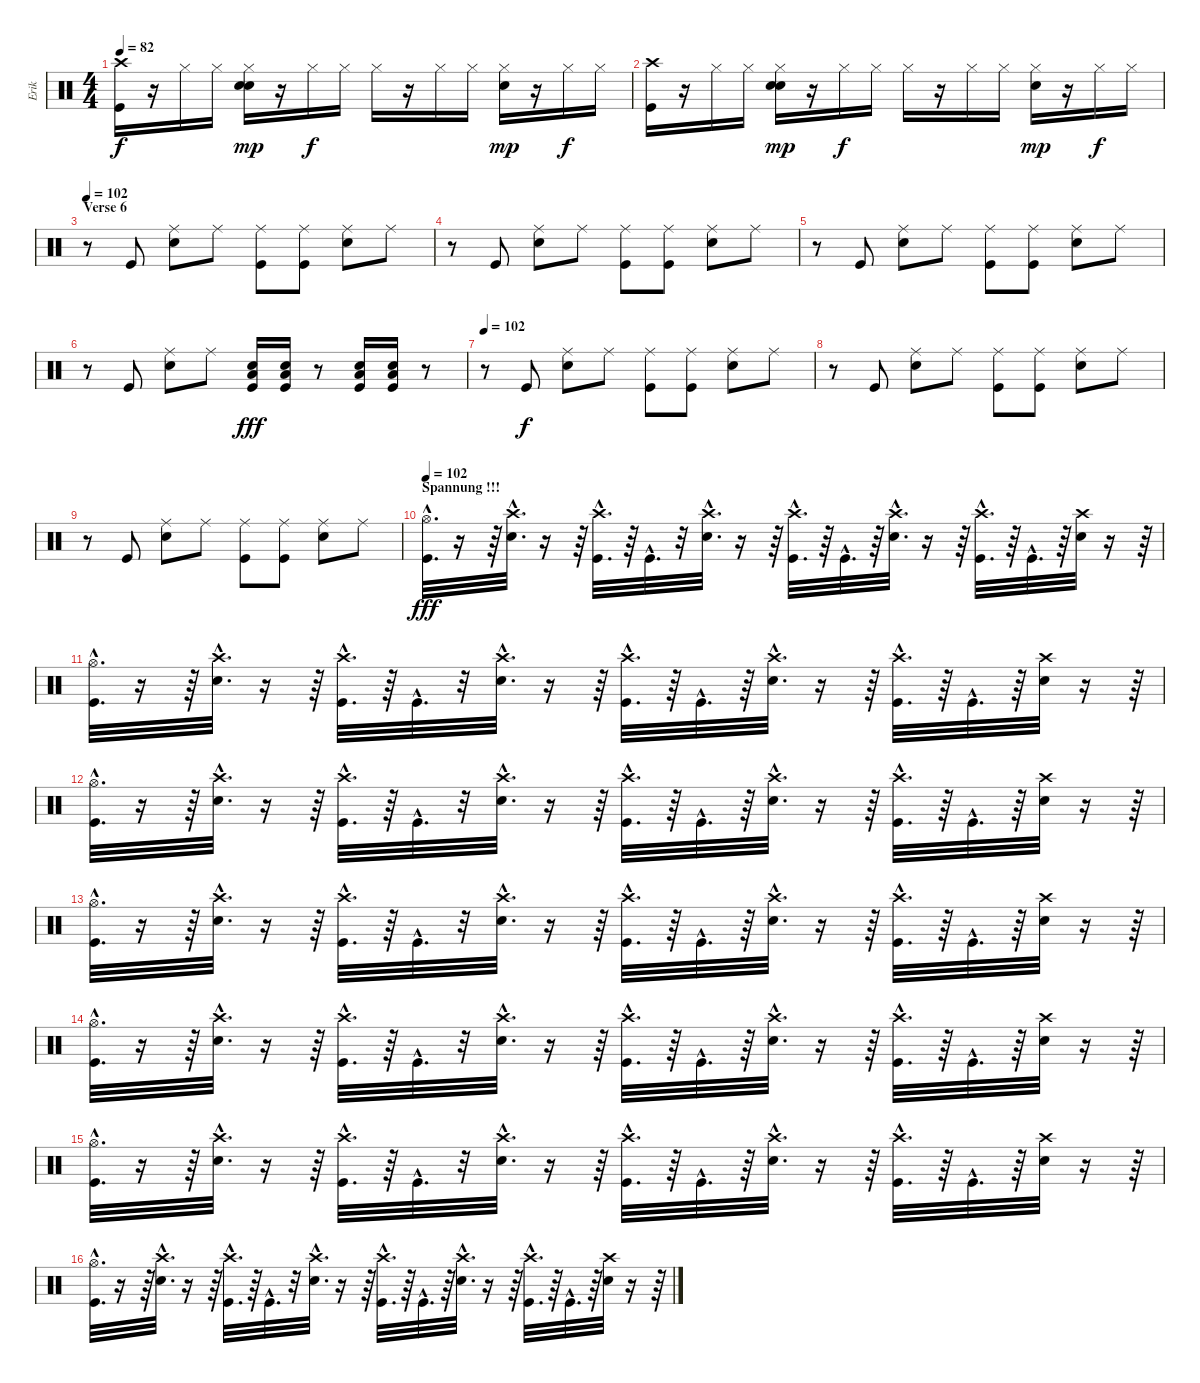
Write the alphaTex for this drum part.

\track ("Erik" "Erik") {instrument percussion}
\staff {score}
\articulation defaults
\ts (4 4)
\tempo 82
\clef neutral
\ks c
("Kick (hit)" "Crash high (hit)").16{dy f} r.16 "Hi-Hat (closed)".16 "Hi-Hat (closed)".16 ("Snare (hit) 2" "Hi-Hat (closed)" "Snare (hit) 2").16{dy mp} r.16 "Hi-Hat (closed)".16{dy f} "Hi-Hat (closed)".16 "Hi-Hat (closed)".16 r.16 "Hi-Hat (closed)".16 "Hi-Hat (closed)".16 ("Hi-Hat (closed)" "Snare (hit) 2").16{dy mp} r.16 "Hi-Hat (closed)".16{dy f} "Hi-Hat (closed)".16 |
("Kick (hit)" "Crash high (hit)").16 r.16 "Hi-Hat (closed)".16 "Hi-Hat (closed)".16 ("Hi-Hat (closed)" "Snare (hit) 2" "Snare (hit) 2").16{dy mp} r.16 "Hi-Hat (closed)".16{dy f} "Hi-Hat (closed)".16 "Hi-Hat (closed)".16 r.16 "Hi-Hat (closed)".16 "Hi-Hat (closed)".16 ("Hi-Hat (closed)" "Snare (hit) 2").16{dy mp} r.16 "Hi-Hat (closed)".16{dy f} "Hi-Hat (closed)".16 |
\section ("" "Verse 6")
\tempo 102
r.8 "Kick (hit)".8 ("Electric Snare (hit)" "Ride (middle)").8 "Ride (middle)".8 ("Kick (hit)" "Ride (middle)").8 ("Kick (hit)" "Ride (middle)").8 ("Ride (middle)" "Electric Snare (hit)").8 "Ride (middle)".8 |
r.8 "Kick (hit)".8 ("Electric Snare (hit)" "Ride (middle)").8 "Ride (middle)".8 ("Kick (hit)" "Ride (middle)").8 ("Kick (hit)" "Ride (middle)").8 ("Ride (middle)" "Electric Snare (hit)").8 "Ride (middle)".8 |
r.8 "Kick (hit)".8 ("Electric Snare (hit)" "Ride (middle)").8 "Ride (middle)".8 ("Kick (hit)" "Ride (middle)").8 ("Kick (hit)" "Ride (middle)").8 ("Ride (middle)" "Electric Snare (hit)").8 "Ride (middle)".8 |
r.8 "Kick (hit)".8 ("Electric Snare (hit)" "Ride (middle)").8 "Ride (middle)".8 ("Electric Snare (hit)" "Kick (hit)" "Low Floor Tom (hit)").16{dy fff} ("Electric Snare (hit)" "Low Floor Tom (hit)" "Kick (hit)").16 r.8 ("Kick (hit)" "Low Floor Tom (hit)" "Electric Snare (hit)").16 ("Kick (hit)" "Electric Snare (hit)" "Low Floor Tom (hit)").16 r.8 |
\tempo 102
r.8 "Kick (hit)".8{dy f} ("Electric Snare (hit)" "Ride (middle)").8 "Ride (middle)".8 ("Kick (hit)" "Ride (middle)").8 ("Kick (hit)" "Ride (middle)").8 ("Ride (middle)" "Electric Snare (hit)").8 "Ride (middle)".8 |
r.8 "Kick (hit)".8 ("Electric Snare (hit)" "Ride (middle)").8 "Ride (middle)".8 ("Kick (hit)" "Ride (middle)").8 ("Kick (hit)" "Ride (middle)").8 ("Ride (middle)" "Electric Snare (hit)").8 "Ride (middle)".8 |
r.8 "Kick (hit)".8 ("Electric Snare (hit)" "Ride (middle)").8 "Ride (middle)".8 ("Kick (hit)" "Ride (middle)").8 ("Kick (hit)" "Ride (middle)").8 ("Ride (middle)" "Electric Snare (hit)").8 "Ride (middle)".8 |
\section ("" "Spannung !!!")
\tempo 102
("Hi-Hat (open)"{hac} "Kick (hit)"{hac}).32{d dy fff} r.16 r.64 ("Crash high (hit)"{hac} "Electric Snare (hit)"{hac}).32{d} r.16 r.64 ("Kick (hit)"{hac} "Crash high (hit)"{hac}).32{d} r.64 "Kick (hit)"{hac}.32{d} r.32 ("Crash high (hit)"{hac} "Electric Snare (hit)"{hac}).32{d} r.16 r.64 ("Crash high (hit)"{hac} "Kick (hit)"{hac}).32{d} r.64 "Kick (hit)"{hac}.32{d} r.64 ("Crash high (hit)"{hac} "Electric Snare (hit)"{hac}).32{d} r.16 r.64 ("Kick (hit)"{hac} "Crash high (hit)"{hac}).32{d} r.64 "Kick (hit)"{hac}.32{d} r.64 ("Electric Snare (hit)" "Crash high (hit)").32 r.16 r.64 |
("Hi-Hat (open)"{hac} "Kick (hit)"{hac}).32{d} r.16 r.64 ("Crash high (hit)"{hac} "Electric Snare (hit)"{hac}).32{d} r.16 r.64 ("Kick (hit)"{hac} "Crash high (hit)"{hac}).32{d} r.64 "Kick (hit)"{hac}.32{d} r.32 ("Crash high (hit)"{hac} "Electric Snare (hit)"{hac}).32{d} r.16 r.64 ("Crash high (hit)"{hac} "Kick (hit)"{hac}).32{d} r.64 "Kick (hit)"{hac}.32{d} r.64 ("Crash high (hit)"{hac} "Electric Snare (hit)"{hac}).32{d} r.16 r.64 ("Kick (hit)"{hac} "Crash high (hit)"{hac}).32{d} r.64 "Kick (hit)"{hac}.32{d} r.64 ("Electric Snare (hit)" "Crash high (hit)").32 r.16 r.64 |
("Hi-Hat (open)"{hac} "Kick (hit)"{hac}).32{d} r.16 r.64 ("Crash high (hit)"{hac} "Electric Snare (hit)"{hac}).32{d} r.16 r.64 ("Kick (hit)"{hac} "Crash high (hit)"{hac}).32{d} r.64 "Kick (hit)"{hac}.32{d} r.32 ("Crash high (hit)"{hac} "Electric Snare (hit)"{hac}).32{d} r.16 r.64 ("Crash high (hit)"{hac} "Kick (hit)"{hac}).32{d} r.64 "Kick (hit)"{hac}.32{d} r.64 ("Crash high (hit)"{hac} "Electric Snare (hit)"{hac}).32{d} r.16 r.64 ("Kick (hit)"{hac} "Crash high (hit)"{hac}).32{d} r.64 "Kick (hit)"{hac}.32{d} r.64 ("Electric Snare (hit)" "Crash high (hit)").32 r.16 r.64 |
("Hi-Hat (open)"{hac} "Kick (hit)"{hac}).32{d} r.16 r.64 ("Crash high (hit)"{hac} "Electric Snare (hit)"{hac}).32{d} r.16 r.64 ("Kick (hit)"{hac} "Crash high (hit)"{hac}).32{d} r.64 "Kick (hit)"{hac}.32{d} r.32 ("Crash high (hit)"{hac} "Electric Snare (hit)"{hac}).32{d} r.16 r.64 ("Crash high (hit)"{hac} "Kick (hit)"{hac}).32{d} r.64 "Kick (hit)"{hac}.32{d} r.64 ("Crash high (hit)"{hac} "Electric Snare (hit)"{hac}).32{d} r.16 r.64 ("Kick (hit)"{hac} "Crash high (hit)"{hac}).32{d} r.64 "Kick (hit)"{hac}.32{d} r.64 ("Electric Snare (hit)" "Crash high (hit)").32 r.16 r.64 |
("Hi-Hat (open)"{hac} "Kick (hit)"{hac}).32{d} r.16 r.64 ("Crash high (hit)"{hac} "Electric Snare (hit)"{hac}).32{d} r.16 r.64 ("Kick (hit)"{hac} "Crash high (hit)"{hac}).32{d} r.64 "Kick (hit)"{hac}.32{d} r.32 ("Crash high (hit)"{hac} "Electric Snare (hit)"{hac}).32{d} r.16 r.64 ("Crash high (hit)"{hac} "Kick (hit)"{hac}).32{d} r.64 "Kick (hit)"{hac}.32{d} r.64 ("Crash high (hit)"{hac} "Electric Snare (hit)"{hac}).32{d} r.16 r.64 ("Kick (hit)"{hac} "Crash high (hit)"{hac}).32{d} r.64 "Kick (hit)"{hac}.32{d} r.64 ("Electric Snare (hit)" "Crash high (hit)").32 r.16 r.64 |
("Hi-Hat (open)"{hac} "Kick (hit)"{hac}).32{d} r.16 r.64 ("Crash high (hit)"{hac} "Electric Snare (hit)"{hac}).32{d} r.16 r.64 ("Kick (hit)"{hac} "Crash high (hit)"{hac}).32{d} r.64 "Kick (hit)"{hac}.32{d} r.32 ("Crash high (hit)"{hac} "Electric Snare (hit)"{hac}).32{d} r.16 r.64 ("Crash high (hit)"{hac} "Kick (hit)"{hac}).32{d} r.64 "Kick (hit)"{hac}.32{d} r.64 ("Crash high (hit)"{hac} "Electric Snare (hit)"{hac}).32{d} r.16 r.64 ("Kick (hit)"{hac} "Crash high (hit)"{hac}).32{d} r.64 "Kick (hit)"{hac}.32{d} r.64 ("Electric Snare (hit)" "Crash high (hit)").32 r.16 r.64 |
("Hi-Hat (open)"{hac} "Kick (hit)"{hac}).32{d} r.16 r.64 ("Crash high (hit)"{hac} "Electric Snare (hit)"{hac}).32{d} r.16 r.64 ("Kick (hit)"{hac} "Crash high (hit)"{hac}).32{d} r.64 "Kick (hit)"{hac}.32{d} r.32 ("Crash high (hit)"{hac} "Electric Snare (hit)"{hac}).32{d} r.16 r.64 ("Crash high (hit)"{hac} "Kick (hit)"{hac}).32{d} r.64 "Kick (hit)"{hac}.32{d} r.64 ("Crash high (hit)"{hac} "Electric Snare (hit)"{hac}).32{d} r.16 r.64 ("Kick (hit)"{hac} "Crash high (hit)"{hac}).32{d} r.64 "Kick (hit)"{hac}.32{d} r.64 ("Electric Snare (hit)" "Crash high (hit)").32 r.16 r.64
